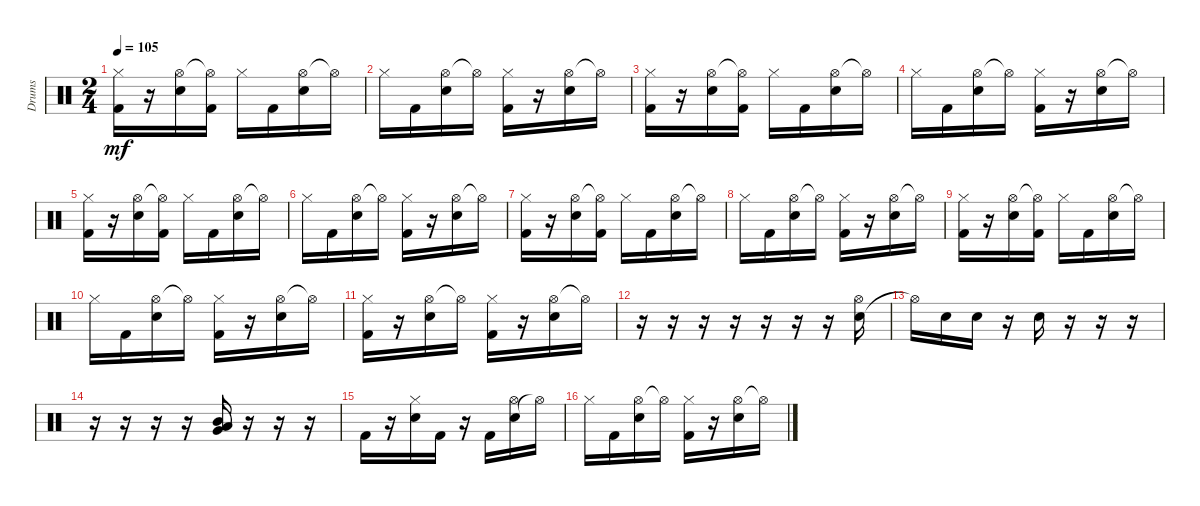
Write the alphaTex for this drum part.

\defaultSystemsLayout 4
\bracketExtendMode groupsimilarinstruments
\otherSystemsTrackNameOrientation horizontal
\track ("Godd" "Drums") {instrument percussion}
\staff {score}
\articulation defaults
\ts (2 4)
\tempo 105
\clef neutral
\ks c
("Hi-Hat (closed)" "Kick (hit) 2").16{dy mf} r.16 ("Hi-Hat (open)" "Snare (hit) 2").16 ("Hi-Hat (open)"{t} "Kick (hit) 2").16 "Hi-Hat (closed)".16 "Kick (hit) 2".16 ("Hi-Hat (open)" "Snare (hit) 2").16 "Hi-Hat (open)"{t}.16 |
"Hi-Hat (closed)".16 "Kick (hit) 2".16 ("Hi-Hat (open)" "Snare (hit) 2").16 "Hi-Hat (open)"{t}.16 ("Kick (hit) 2" "Hi-Hat (closed)").16 r.16 ("Hi-Hat (open)" "Snare (hit) 2").16 "Hi-Hat (open)"{t}.16 |
("Hi-Hat (closed)" "Kick (hit) 2").16 r.16 ("Hi-Hat (open)" "Snare (hit) 2").16 ("Hi-Hat (open)"{t} "Kick (hit) 2").16 "Hi-Hat (closed)".16 "Kick (hit) 2".16 ("Hi-Hat (open)" "Snare (hit) 2").16 "Hi-Hat (open)"{t}.16 |
"Hi-Hat (closed)".16 "Kick (hit) 2".16 ("Hi-Hat (open)" "Snare (hit) 2").16 "Hi-Hat (open)"{t}.16 ("Kick (hit) 2" "Hi-Hat (closed)").16 r.16 ("Hi-Hat (open)" "Snare (hit) 2").16 "Hi-Hat (open)"{t}.16 |
("Hi-Hat (closed)" "Kick (hit) 2").16 r.16 ("Hi-Hat (open)" "Snare (hit) 2").16 ("Hi-Hat (open)"{t} "Kick (hit) 2").16 "Hi-Hat (closed)".16 "Kick (hit) 2".16 ("Hi-Hat (open)" "Snare (hit) 2").16 "Hi-Hat (open)"{t}.16 |
"Hi-Hat (closed)".16 "Kick (hit) 2".16 ("Hi-Hat (open)" "Snare (hit) 2").16 "Hi-Hat (open)"{t}.16 ("Kick (hit) 2" "Hi-Hat (closed)").16 r.16 ("Hi-Hat (open)" "Snare (hit) 2").16 "Hi-Hat (open)"{t}.16 |
("Hi-Hat (closed)" "Kick (hit) 2").16 r.16 ("Hi-Hat (open)" "Snare (hit) 2").16 ("Hi-Hat (open)"{t} "Kick (hit) 2").16 "Hi-Hat (closed)".16 "Kick (hit) 2".16 ("Hi-Hat (open)" "Snare (hit) 2").16 "Hi-Hat (open)"{t}.16 |
"Hi-Hat (closed)".16 "Kick (hit) 2".16 ("Hi-Hat (open)" "Snare (hit) 2").16 "Hi-Hat (open)"{t}.16 ("Kick (hit) 2" "Hi-Hat (closed)").16 r.16 ("Hi-Hat (open)" "Snare (hit) 2").16 "Hi-Hat (open)"{t}.16 |
("Hi-Hat (closed)" "Kick (hit) 2").16 r.16 ("Hi-Hat (open)" "Snare (hit) 2").16 ("Hi-Hat (open)"{t} "Kick (hit) 2").16 "Hi-Hat (closed)".16 "Kick (hit) 2".16 ("Hi-Hat (open)" "Snare (hit) 2").16 "Hi-Hat (open)"{t}.16 |
"Hi-Hat (closed)".16 "Kick (hit) 2".16 ("Hi-Hat (open)" "Snare (hit) 2").16 "Hi-Hat (open)"{t}.16 ("Kick (hit) 2" "Hi-Hat (closed)").16 r.16 ("Hi-Hat (open)" "Snare (hit) 2").16 "Hi-Hat (open)"{t}.16 |
("Hi-Hat (closed)" "Kick (hit) 2").16 r.16 ("Hi-Hat (open)" "Snare (hit) 2").16 "Hi-Hat (open)"{t}.16 ("Hi-Hat (closed)" "Kick (hit) 2").16 r.16 ("Hi-Hat (open)" "Snare (hit) 2").16 "Hi-Hat (open)"{t}.16 |
r.16 r.16 r.16 r.16 r.16 r.16 r.16 ("Snare (hit) 2" "Hi-Hat (open)").16 |
"Hi-Hat (open)"{t}.16 "Snare (hit) 2".16 "Snare (hit) 2".16 r.16 "Snare (hit) 2".16 r.16 r.16 r.16 |
r.16 r.16 r.16 r.16 ("Very Low Tom (hit)" "Low Tom (hit)" "Mid Tom (hit)").16 r.16 r.16 r.16 |
"Kick (hit) 2".16 r.16 ("Snare (hit) 2" "Hi-Hat (closed)").16 "Kick (hit) 2".16 r.16 "Kick (hit) 2".16 ("Snare (hit) 2" "Hi-Hat (open)").16 "Hi-Hat (open)"{t}.16 |
"Hi-Hat (closed)".16 "Kick (hit) 2".16 ("Hi-Hat (open)" "Snare (hit) 2").16 "Hi-Hat (open)"{t}.16 ("Kick (hit) 2" "Hi-Hat (closed)").16 r.16 ("Hi-Hat (open)" "Snare (hit) 2").16 "Hi-Hat (open)"{t}.16
